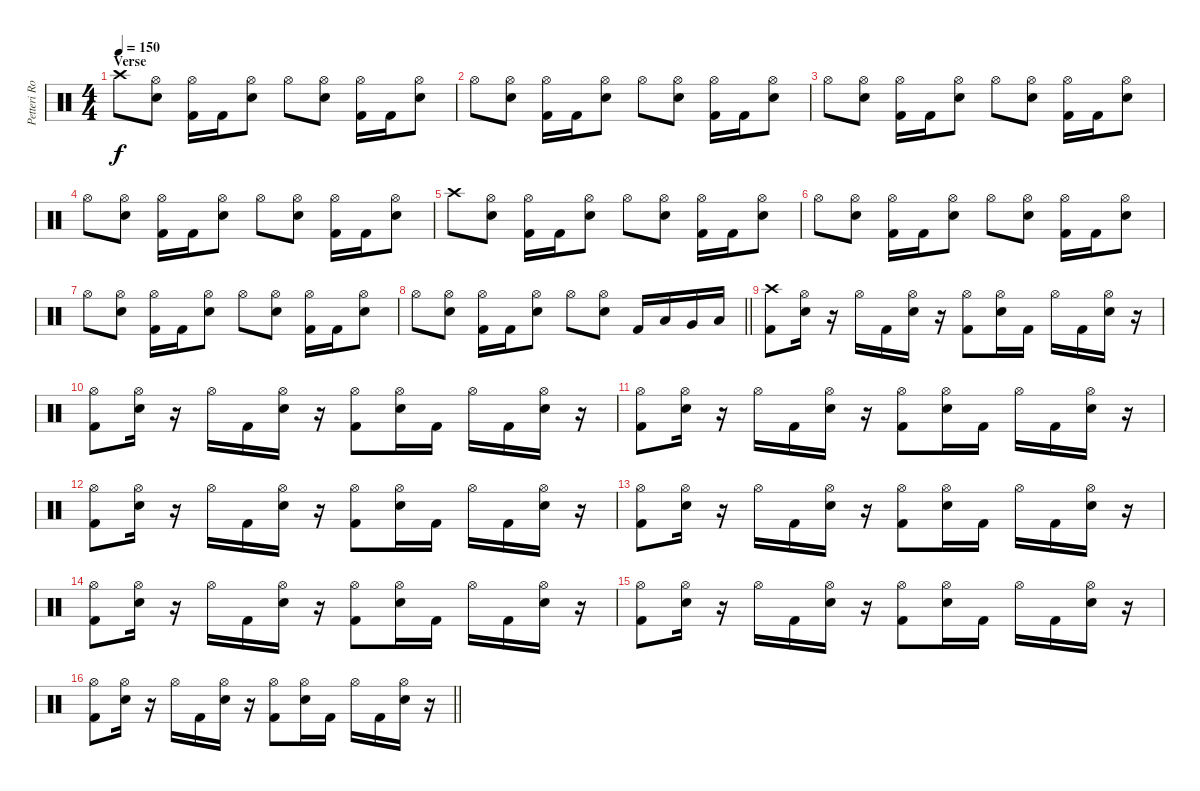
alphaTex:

\track ("Petteri Rosenbom" "Petteri Ro") {instrument percussion}
\staff {score}
\articulation defaults
\ts (4 4)
\section ("" "Verse")
\tempo 150
\clef neutral
\ks c "Crash high (hit)".8{dy f}
("Hi-Hat (open)" "Electric Snare (hit)").8 ("Hi-Hat (open)" "Kick (hit) 2").16 "Kick (hit) 2".16 ("Hi-Hat (open)" "Electric Snare (hit)").8 "Hi-Hat (open)".8 ("Hi-Hat (open)" "Electric Snare (hit)").8 ("Hi-Hat (open)" "Kick (hit) 2").16 "Kick (hit) 2".16 ("Hi-Hat (open)" "Electric Snare (hit)").8 |
"Hi-Hat (open)".8 ("Hi-Hat (open)" "Electric Snare (hit)").8 ("Hi-Hat (open)" "Kick (hit) 2").16 "Kick (hit) 2".16 ("Hi-Hat (open)" "Electric Snare (hit)").8 "Hi-Hat (open)".8 ("Hi-Hat (open)" "Electric Snare (hit)").8 ("Hi-Hat (open)" "Kick (hit) 2").16 "Kick (hit) 2".16 ("Hi-Hat (open)" "Electric Snare (hit)").8 |
"Hi-Hat (open)".8 ("Hi-Hat (open)" "Electric Snare (hit)").8 ("Hi-Hat (open)" "Kick (hit) 2").16 "Kick (hit) 2".16 ("Hi-Hat (open)" "Electric Snare (hit)").8 "Hi-Hat (open)".8 ("Hi-Hat (open)" "Electric Snare (hit)").8 ("Hi-Hat (open)" "Kick (hit) 2").16 "Kick (hit) 2".16 ("Hi-Hat (open)" "Electric Snare (hit)").8 |
"Hi-Hat (open)".8 ("Hi-Hat (open)" "Electric Snare (hit)").8 ("Hi-Hat (open)" "Kick (hit) 2").16 "Kick (hit) 2".16 ("Hi-Hat (open)" "Electric Snare (hit)").8 "Hi-Hat (open)".8 ("Hi-Hat (open)" "Electric Snare (hit)").8 ("Hi-Hat (open)" "Kick (hit) 2").16 "Kick (hit) 2".16 ("Hi-Hat (open)" "Electric Snare (hit)").8 |
"Crash high (hit)".8 ("Hi-Hat (open)" "Electric Snare (hit)").8 ("Hi-Hat (open)" "Kick (hit) 2").16 "Kick (hit) 2".16 ("Hi-Hat (open)" "Electric Snare (hit)").8 "Hi-Hat (open)".8 ("Hi-Hat (open)" "Electric Snare (hit)").8 ("Hi-Hat (open)" "Kick (hit) 2").16 "Kick (hit) 2".16 ("Hi-Hat (open)" "Electric Snare (hit)").8 |
"Hi-Hat (open)".8 ("Hi-Hat (open)" "Electric Snare (hit)").8 ("Hi-Hat (open)" "Kick (hit) 2").16 "Kick (hit) 2".16 ("Hi-Hat (open)" "Electric Snare (hit)").8 "Hi-Hat (open)".8 ("Hi-Hat (open)" "Electric Snare (hit)").8 ("Hi-Hat (open)" "Kick (hit) 2").16 "Kick (hit) 2".16 ("Hi-Hat (open)" "Electric Snare (hit)").8 |
"Hi-Hat (open)".8 ("Hi-Hat (open)" "Electric Snare (hit)").8 ("Hi-Hat (open)" "Kick (hit) 2").16 "Kick (hit) 2".16 ("Hi-Hat (open)" "Electric Snare (hit)").8 "Hi-Hat (open)".8 ("Hi-Hat (open)" "Electric Snare (hit)").8 ("Hi-Hat (open)" "Kick (hit) 2").16 "Kick (hit) 2".16 ("Hi-Hat (open)" "Electric Snare (hit)").8 |
\barLineRight lightlight "Hi-Hat (open)".8
("Hi-Hat (open)" "Electric Snare (hit)").8 ("Hi-Hat (open)" "Kick (hit) 2").16 "Kick (hit) 2".16 ("Hi-Hat (open)" "Electric Snare (hit)").8 "Hi-Hat (open)".8 ("Hi-Hat (open)" "Electric Snare (hit)").8 "Kick (hit) 2".16 "Low Floor Tom (hit)".16 "Very Low Tom (hit)".16 "Low Tom (hit)".16 |
\section ("" "")
("Crash high (hit)" "Kick (hit) 2").8 ("Hi-Hat (open)" "Electric Snare (hit)").16 r.16 "Hi-Hat (open)".16 "Kick (hit) 2".16 ("Hi-Hat (open)" "Electric Snare (hit)").16 r.16 ("Hi-Hat (open)" "Kick (hit) 2").8 ("Hi-Hat (open)" "Electric Snare (hit)").16 "Kick (hit) 2".16 "Hi-Hat (open)".16 "Kick (hit) 2".16 ("Hi-Hat (open)" "Electric Snare (hit)").16 r.16 |
("Hi-Hat (open)" "Kick (hit) 2").8 ("Hi-Hat (open)" "Electric Snare (hit)").16 r.16 "Hi-Hat (open)".16 "Kick (hit) 2".16 ("Hi-Hat (open)" "Electric Snare (hit)").16 r.16 ("Hi-Hat (open)" "Kick (hit) 2").8 ("Hi-Hat (open)" "Electric Snare (hit)").16 "Kick (hit) 2".16 "Hi-Hat (open)".16 "Kick (hit) 2".16 ("Hi-Hat (open)" "Electric Snare (hit)").16 r.16 |
("Hi-Hat (open)" "Kick (hit) 2").8 ("Hi-Hat (open)" "Electric Snare (hit)").16 r.16 "Hi-Hat (open)".16 "Kick (hit) 2".16 ("Hi-Hat (open)" "Electric Snare (hit)").16 r.16 ("Hi-Hat (open)" "Kick (hit) 2").8 ("Hi-Hat (open)" "Electric Snare (hit)").16 "Kick (hit) 2".16 "Hi-Hat (open)".16 "Kick (hit) 2".16 ("Hi-Hat (open)" "Electric Snare (hit)").16 r.16 |
("Hi-Hat (open)" "Kick (hit) 2").8 ("Hi-Hat (open)" "Electric Snare (hit)").16 r.16 "Hi-Hat (open)".16 "Kick (hit) 2".16 ("Hi-Hat (open)" "Electric Snare (hit)").16 r.16 ("Hi-Hat (open)" "Kick (hit) 2").8 ("Hi-Hat (open)" "Electric Snare (hit)").16 "Kick (hit) 2".16 "Hi-Hat (open)".16 "Kick (hit) 2".16 ("Hi-Hat (open)" "Electric Snare (hit)").16 r.16 |
("Hi-Hat (open)" "Kick (hit) 2").8 ("Hi-Hat (open)" "Electric Snare (hit)").16 r.16 "Hi-Hat (open)".16 "Kick (hit) 2".16 ("Hi-Hat (open)" "Electric Snare (hit)").16 r.16 ("Hi-Hat (open)" "Kick (hit) 2").8 ("Hi-Hat (open)" "Electric Snare (hit)").16 "Kick (hit) 2".16 "Hi-Hat (open)".16 "Kick (hit) 2".16 ("Hi-Hat (open)" "Electric Snare (hit)").16 r.16 |
("Hi-Hat (open)" "Kick (hit) 2").8 ("Hi-Hat (open)" "Electric Snare (hit)").16 r.16 "Hi-Hat (open)".16 "Kick (hit) 2".16 ("Hi-Hat (open)" "Electric Snare (hit)").16 r.16 ("Hi-Hat (open)" "Kick (hit) 2").8 ("Hi-Hat (open)" "Electric Snare (hit)").16 "Kick (hit) 2".16 "Hi-Hat (open)".16 "Kick (hit) 2".16 ("Hi-Hat (open)" "Electric Snare (hit)").16 r.16 |
("Hi-Hat (open)" "Kick (hit) 2").8 ("Hi-Hat (open)" "Electric Snare (hit)").16 r.16 "Hi-Hat (open)".16 "Kick (hit) 2".16 ("Hi-Hat (open)" "Electric Snare (hit)").16 r.16 ("Hi-Hat (open)" "Kick (hit) 2").8 ("Hi-Hat (open)" "Electric Snare (hit)").16 "Kick (hit) 2".16 "Hi-Hat (open)".16 "Kick (hit) 2".16 ("Hi-Hat (open)" "Electric Snare (hit)").16 r.16 |
\barLineRight lightlight
("Hi-Hat (open)" "Kick (hit) 2").8 ("Hi-Hat (open)" "Electric Snare (hit)").16 r.16 "Hi-Hat (open)".16 "Kick (hit) 2".16 ("Hi-Hat (open)" "Electric Snare (hit)").16 r.16 ("Hi-Hat (open)" "Kick (hit) 2").8 ("Hi-Hat (open)" "Electric Snare (hit)").16 "Kick (hit) 2".16 "Hi-Hat (open)".16 "Kick (hit) 2".16 ("Hi-Hat (open)" "Electric Snare (hit)").16 r.16
